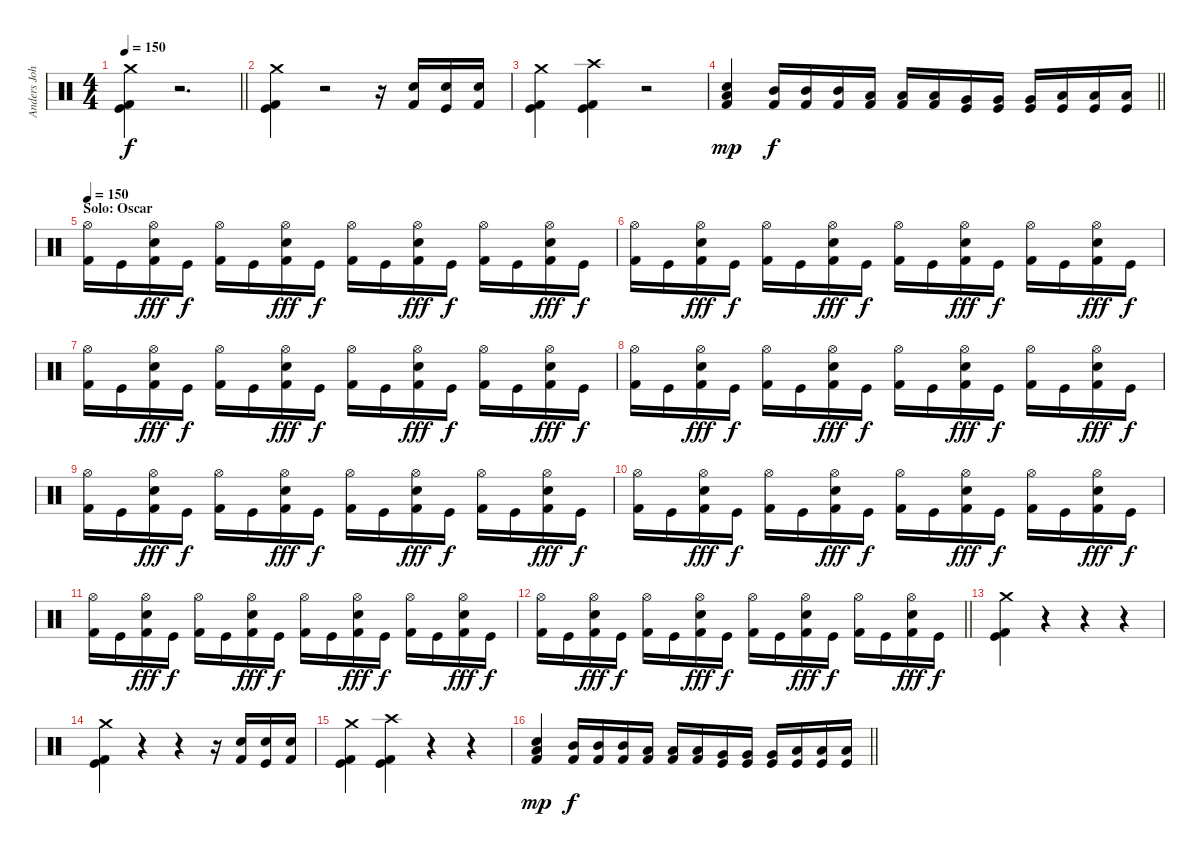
\track ("Anders Johansson" "Anders Joh") {instrument percussion}
\staff {score}
\articulation defaults
\ts (4 4)
\tempo 150
\clef neutral
\barLineRight lightlight
\ks c
("Crash medium (hit)" "Kick (hit)" "Kick (hit) 2").4{dy f} r.2{d} |
("Crash medium (hit)" "Kick (hit)" "Kick (hit) 2").4 r.2 r.16 ("Electric Snare (hit)" "Kick (hit) 2").16 ("Electric Snare (hit)" "Kick (hit)").16 ("Electric Snare (hit)" "Kick (hit) 2").16 |
("Crash medium (hit)" "Kick (hit)" "Kick (hit) 2").4 ("Crash high (hit)" "Kick (hit)" "Kick (hit) 2").4 r.2 |
\barLineRight lightlight
("Low Tom (hit)" "Electric Snare (hit)" "Kick (hit) 2").4{dy mp} ("Mid Tom (hit)" "Kick (hit) 2").16{dy f} ("Mid Tom (hit)" "Kick (hit) 2").16 ("Mid Tom (hit)" "Kick (hit) 2").16 ("Low Tom (hit)" "Kick (hit) 2").16 ("Low Tom (hit)" "Kick (hit) 2").16 ("Low Tom (hit)" "Kick (hit) 2").16 ("Very Low Tom (hit)" "Kick (hit)").16 ("Very Low Tom (hit)" "Kick (hit)").16 ("Very Low Tom (hit)" "Kick (hit)").16 ("Low Floor Tom (hit)" "Kick (hit)").16 ("Low Floor Tom (hit)" "Kick (hit)").16 ("Low Floor Tom (hit)" "Kick (hit)").16 |
\section ("" "Solo: Oscar")
\tempo 150
("Hi-Hat (open)" "Kick (hit) 2").16 "Kick (hit)".16 ("Hi-Hat (open)" "Electric Snare (hit)" "Kick (hit) 2").16{dy fff} "Kick (hit)".16{dy f} ("Hi-Hat (open)" "Kick (hit) 2").16 "Kick (hit)".16 ("Hi-Hat (open)" "Electric Snare (hit)" "Kick (hit) 2").16{dy fff} "Kick (hit)".16{dy f} ("Hi-Hat (open)" "Kick (hit) 2").16 "Kick (hit)".16 ("Hi-Hat (open)" "Electric Snare (hit)" "Kick (hit) 2").16{dy fff} "Kick (hit)".16{dy f} ("Hi-Hat (open)" "Kick (hit) 2").16 "Kick (hit)".16 ("Hi-Hat (open)" "Electric Snare (hit)" "Kick (hit) 2").16{dy fff} "Kick (hit)".16{dy f} |
("Hi-Hat (open)" "Kick (hit) 2").16 "Kick (hit)".16 ("Hi-Hat (open)" "Electric Snare (hit)" "Kick (hit) 2").16{dy fff} "Kick (hit)".16{dy f} ("Hi-Hat (open)" "Kick (hit) 2").16 "Kick (hit)".16 ("Hi-Hat (open)" "Electric Snare (hit)" "Kick (hit) 2").16{dy fff} "Kick (hit)".16{dy f} ("Hi-Hat (open)" "Kick (hit) 2").16 "Kick (hit)".16 ("Hi-Hat (open)" "Electric Snare (hit)" "Kick (hit) 2").16{dy fff} "Kick (hit)".16{dy f} ("Hi-Hat (open)" "Kick (hit) 2").16 "Kick (hit)".16 ("Hi-Hat (open)" "Electric Snare (hit)" "Kick (hit) 2").16{dy fff} "Kick (hit)".16{dy f} |
("Hi-Hat (open)" "Kick (hit) 2").16 "Kick (hit)".16 ("Hi-Hat (open)" "Electric Snare (hit)" "Kick (hit) 2").16{dy fff} "Kick (hit)".16{dy f} ("Hi-Hat (open)" "Kick (hit) 2").16 "Kick (hit)".16 ("Hi-Hat (open)" "Electric Snare (hit)" "Kick (hit) 2").16{dy fff} "Kick (hit)".16{dy f} ("Hi-Hat (open)" "Kick (hit) 2").16 "Kick (hit)".16 ("Hi-Hat (open)" "Electric Snare (hit)" "Kick (hit) 2").16{dy fff} "Kick (hit)".16{dy f} ("Hi-Hat (open)" "Kick (hit) 2").16 "Kick (hit)".16 ("Hi-Hat (open)" "Electric Snare (hit)" "Kick (hit) 2").16{dy fff} "Kick (hit)".16{dy f} |
("Hi-Hat (open)" "Kick (hit) 2").16 "Kick (hit)".16 ("Hi-Hat (open)" "Electric Snare (hit)" "Kick (hit) 2").16{dy fff} "Kick (hit)".16{dy f} ("Hi-Hat (open)" "Kick (hit) 2").16 "Kick (hit)".16 ("Hi-Hat (open)" "Electric Snare (hit)" "Kick (hit) 2").16{dy fff} "Kick (hit)".16{dy f} ("Hi-Hat (open)" "Kick (hit) 2").16 "Kick (hit)".16 ("Hi-Hat (open)" "Electric Snare (hit)" "Kick (hit) 2").16{dy fff} "Kick (hit)".16{dy f} ("Hi-Hat (open)" "Kick (hit) 2").16 "Kick (hit)".16 ("Hi-Hat (open)" "Electric Snare (hit)" "Kick (hit) 2").16{dy fff} "Kick (hit)".16{dy f} |
("Hi-Hat (open)" "Kick (hit) 2").16 "Kick (hit)".16 ("Hi-Hat (open)" "Electric Snare (hit)" "Kick (hit) 2").16{dy fff} "Kick (hit)".16{dy f} ("Hi-Hat (open)" "Kick (hit) 2").16 "Kick (hit)".16 ("Hi-Hat (open)" "Electric Snare (hit)" "Kick (hit) 2").16{dy fff} "Kick (hit)".16{dy f} ("Hi-Hat (open)" "Kick (hit) 2").16 "Kick (hit)".16 ("Hi-Hat (open)" "Electric Snare (hit)" "Kick (hit) 2").16{dy fff} "Kick (hit)".16{dy f} ("Hi-Hat (open)" "Kick (hit) 2").16 "Kick (hit)".16 ("Hi-Hat (open)" "Electric Snare (hit)" "Kick (hit) 2").16{dy fff} "Kick (hit)".16{dy f} |
("Hi-Hat (open)" "Kick (hit) 2").16 "Kick (hit)".16 ("Hi-Hat (open)" "Electric Snare (hit)" "Kick (hit) 2").16{dy fff} "Kick (hit)".16{dy f} ("Hi-Hat (open)" "Kick (hit) 2").16 "Kick (hit)".16 ("Hi-Hat (open)" "Electric Snare (hit)" "Kick (hit) 2").16{dy fff} "Kick (hit)".16{dy f} ("Hi-Hat (open)" "Kick (hit) 2").16 "Kick (hit)".16 ("Hi-Hat (open)" "Electric Snare (hit)" "Kick (hit) 2").16{dy fff} "Kick (hit)".16{dy f} ("Hi-Hat (open)" "Kick (hit) 2").16 "Kick (hit)".16 ("Hi-Hat (open)" "Electric Snare (hit)" "Kick (hit) 2").16{dy fff} "Kick (hit)".16{dy f} |
("Hi-Hat (open)" "Kick (hit) 2").16 "Kick (hit)".16 ("Hi-Hat (open)" "Electric Snare (hit)" "Kick (hit) 2").16{dy fff} "Kick (hit)".16{dy f} ("Hi-Hat (open)" "Kick (hit) 2").16 "Kick (hit)".16 ("Hi-Hat (open)" "Electric Snare (hit)" "Kick (hit) 2").16{dy fff} "Kick (hit)".16{dy f} ("Hi-Hat (open)" "Kick (hit) 2").16 "Kick (hit)".16 ("Hi-Hat (open)" "Electric Snare (hit)" "Kick (hit) 2").16{dy fff} "Kick (hit)".16{dy f} ("Hi-Hat (open)" "Kick (hit) 2").16 "Kick (hit)".16 ("Hi-Hat (open)" "Electric Snare (hit)" "Kick (hit) 2").16{dy fff} "Kick (hit)".16{dy f} |
\barLineRight lightlight
("Hi-Hat (open)" "Kick (hit) 2").16 "Kick (hit)".16 ("Hi-Hat (open)" "Electric Snare (hit)" "Kick (hit) 2").16{dy fff} "Kick (hit)".16{dy f} ("Hi-Hat (open)" "Kick (hit) 2").16 "Kick (hit)".16 ("Hi-Hat (open)" "Electric Snare (hit)" "Kick (hit) 2").16{dy fff} "Kick (hit)".16{dy f} ("Hi-Hat (open)" "Kick (hit) 2").16 "Kick (hit)".16 ("Hi-Hat (open)" "Electric Snare (hit)" "Kick (hit) 2").16{dy fff} "Kick (hit)".16{dy f} ("Hi-Hat (open)" "Kick (hit) 2").16 "Kick (hit)".16 ("Hi-Hat (open)" "Electric Snare (hit)" "Kick (hit) 2").16{dy fff} "Kick (hit)".16{dy f} |
("Crash medium (hit)" "Kick (hit)" "Kick (hit) 2").4 r.4 r.4 r.4 |
("Crash medium (hit)" "Kick (hit)" "Kick (hit) 2").4 r.4 r.4 r.16 ("Electric Snare (hit)" "Kick (hit) 2").16 ("Electric Snare (hit)" "Kick (hit)").16 ("Electric Snare (hit)" "Kick (hit) 2").16 |
("Crash medium (hit)" "Kick (hit)" "Kick (hit) 2").4 ("Crash high (hit)" "Kick (hit)" "Kick (hit) 2").4 r.4 r.4 |
\barLineRight lightlight
("Low Tom (hit)" "Electric Snare (hit)" "Kick (hit) 2").4{dy mp} ("Mid Tom (hit)" "Kick (hit) 2").16{dy f} ("Mid Tom (hit)" "Kick (hit) 2").16 ("Mid Tom (hit)" "Kick (hit) 2").16 ("Low Tom (hit)" "Kick (hit) 2").16 ("Low Tom (hit)" "Kick (hit) 2").16 ("Low Tom (hit)" "Kick (hit) 2").16 ("Very Low Tom (hit)" "Kick (hit)").16 ("Very Low Tom (hit)" "Kick (hit)").16 ("Very Low Tom (hit)" "Kick (hit)").16 ("Low Floor Tom (hit)" "Kick (hit)").16 ("Low Floor Tom (hit)" "Kick (hit)").16 ("Low Floor Tom (hit)" "Kick (hit)").16
